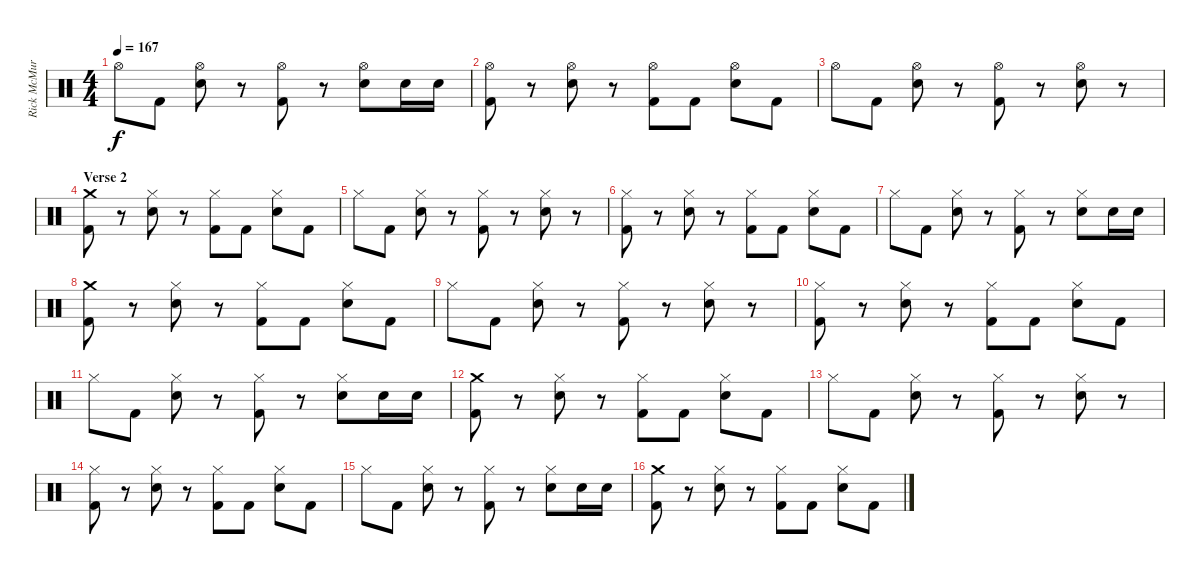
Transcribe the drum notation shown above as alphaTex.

\track ("Rick McMurray" "Rick McMur") {instrument percussion}
\staff {score}
\articulation defaults
\ts (4 4)
\tempo 167
\clef neutral
\ks c "Hi-Hat (open)".8{dy f} "Kick (hit) 2".8
("Hi-Hat (open)" "Electric Snare (hit)").8 r.8 ("Hi-Hat (open)" "Kick (hit) 2").8 r.8 ("Hi-Hat (open)" "Electric Snare (hit)").8 "Electric Snare (hit)".16 "Electric Snare (hit)".16 |
("Hi-Hat (open)" "Kick (hit) 2").8 r.8 ("Hi-Hat (open)" "Electric Snare (hit)").8 r.8 ("Hi-Hat (open)" "Kick (hit) 2").8 "Kick (hit) 2".8 ("Hi-Hat (open)" "Electric Snare (hit)").8 "Kick (hit) 2".8 |
"Hi-Hat (open)".8 "Kick (hit) 2".8 ("Hi-Hat (open)" "Electric Snare (hit)").8 r.8 ("Hi-Hat (open)" "Kick (hit) 2").8 r.8 ("Hi-Hat (open)" "Electric Snare (hit)").8 r.8 |
\section ("" "Verse 2")
("Crash medium (hit)" "Kick (hit) 2").8 r.8 ("Hi-Hat (closed)" "Electric Snare (hit)").8 r.8 ("Hi-Hat (closed)" "Kick (hit) 2").8 "Kick (hit) 2".8 ("Hi-Hat (closed)" "Electric Snare (hit)").8 "Kick (hit) 2".8 |
"Hi-Hat (closed)".8 "Kick (hit) 2".8 ("Hi-Hat (closed)" "Electric Snare (hit)").8 r.8 ("Hi-Hat (closed)" "Kick (hit) 2").8 r.8 ("Hi-Hat (closed)" "Electric Snare (hit)").8 r.8 |
("Hi-Hat (closed)" "Kick (hit) 2").8 r.8 ("Hi-Hat (closed)" "Electric Snare (hit)").8 r.8 ("Hi-Hat (closed)" "Kick (hit) 2").8 "Kick (hit) 2".8 ("Hi-Hat (closed)" "Electric Snare (hit)").8 "Kick (hit) 2".8 |
"Hi-Hat (closed)".8 "Kick (hit) 2".8 ("Hi-Hat (closed)" "Electric Snare (hit)").8 r.8 ("Hi-Hat (closed)" "Kick (hit) 2").8 r.8 ("Hi-Hat (closed)" "Electric Snare (hit)").8 "Electric Snare (hit)".16 "Electric Snare (hit)".16 |
("Crash medium (hit)" "Kick (hit) 2").8 r.8 ("Hi-Hat (closed)" "Electric Snare (hit)").8 r.8 ("Hi-Hat (closed)" "Kick (hit) 2").8 "Kick (hit) 2".8 ("Hi-Hat (closed)" "Electric Snare (hit)").8 "Kick (hit) 2".8 |
"Hi-Hat (closed)".8 "Kick (hit) 2".8 ("Hi-Hat (closed)" "Electric Snare (hit)").8 r.8 ("Hi-Hat (closed)" "Kick (hit) 2").8 r.8 ("Hi-Hat (closed)" "Electric Snare (hit)").8 r.8 |
("Hi-Hat (closed)" "Kick (hit) 2").8 r.8 ("Hi-Hat (closed)" "Electric Snare (hit)").8 r.8 ("Hi-Hat (closed)" "Kick (hit) 2").8 "Kick (hit) 2".8 ("Hi-Hat (closed)" "Electric Snare (hit)").8 "Kick (hit) 2".8 |
"Hi-Hat (closed)".8 "Kick (hit) 2".8 ("Hi-Hat (closed)" "Electric Snare (hit)").8 r.8 ("Hi-Hat (closed)" "Kick (hit) 2").8 r.8 ("Hi-Hat (closed)" "Electric Snare (hit)").8 "Electric Snare (hit)".16 "Electric Snare (hit)".16 |
("Crash medium (hit)" "Kick (hit) 2").8 r.8 ("Hi-Hat (closed)" "Electric Snare (hit)").8 r.8 ("Hi-Hat (closed)" "Kick (hit) 2").8 "Kick (hit) 2".8 ("Hi-Hat (closed)" "Electric Snare (hit)").8 "Kick (hit) 2".8 |
"Hi-Hat (closed)".8 "Kick (hit) 2".8 ("Hi-Hat (closed)" "Electric Snare (hit)").8 r.8 ("Hi-Hat (closed)" "Kick (hit) 2").8 r.8 ("Hi-Hat (closed)" "Electric Snare (hit)").8 r.8 |
("Hi-Hat (closed)" "Kick (hit) 2").8 r.8 ("Hi-Hat (closed)" "Electric Snare (hit)").8 r.8 ("Hi-Hat (closed)" "Kick (hit) 2").8 "Kick (hit) 2".8 ("Hi-Hat (closed)" "Electric Snare (hit)").8 "Kick (hit) 2".8 |
"Hi-Hat (closed)".8 "Kick (hit) 2".8 ("Hi-Hat (closed)" "Electric Snare (hit)").8 r.8 ("Hi-Hat (closed)" "Kick (hit) 2").8 r.8 ("Hi-Hat (closed)" "Electric Snare (hit)").8 "Electric Snare (hit)".16 "Electric Snare (hit)".16 |
("Crash medium (hit)" "Kick (hit) 2").8 r.8 ("Hi-Hat (closed)" "Electric Snare (hit)").8 r.8 ("Hi-Hat (closed)" "Kick (hit) 2").8 "Kick (hit) 2".8 ("Hi-Hat (closed)" "Electric Snare (hit)").8 "Kick (hit) 2".8
